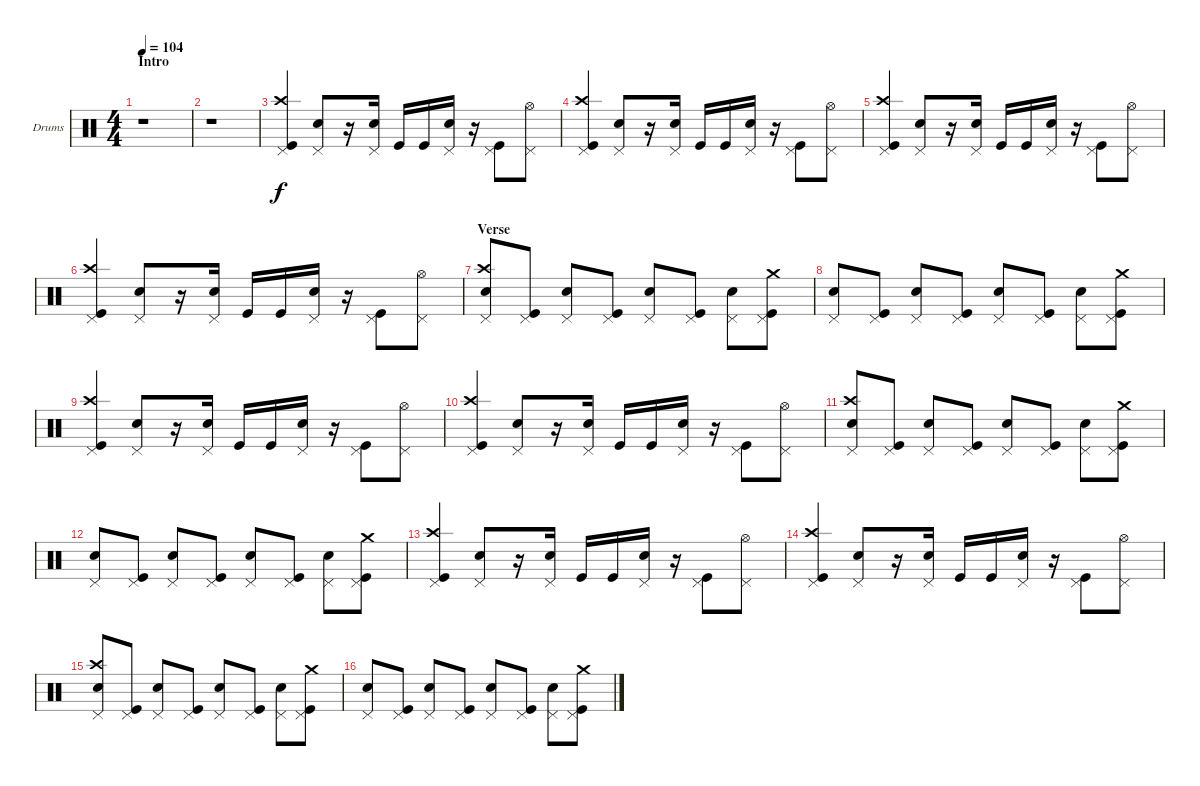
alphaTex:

\defaultSystemsLayout 4
\bracketExtendMode groupsimilarinstruments
\firstSystemTrackNameOrientation horizontal
\otherSystemsTrackNameOrientation horizontal
\track ("Drumkit" "Drums") {instrument percussion}
\staff {score}
\articulation defaults
\ts (4 4)
\section ("" "Intro")
\tempo 104
\clef neutral
\ks c
r.1{dy f} |
r.1 |
("Pedal Hi-Hat (hit)" "Crash high (hit)" "Kick (hit)").4 ("Pedal Hi-Hat (hit)" "Snare (hit) 2").8 r.16 ("Pedal Hi-Hat (hit)" "Snare (hit) 2").16 "Kick (hit)".16 "Kick (hit)".16 ("Pedal Hi-Hat (hit)" "Snare (hit) 2").16 r.16 ("Pedal Hi-Hat (hit)" "Kick (hit)").8 ("Pedal Hi-Hat (hit)" "Hi-Hat (open)").8 |
("Pedal Hi-Hat (hit)" "Crash high (hit)" "Kick (hit)").4 ("Pedal Hi-Hat (hit)" "Snare (hit) 2").8 r.16 ("Pedal Hi-Hat (hit)" "Snare (hit) 2").16 "Kick (hit)".16 "Kick (hit)".16 ("Pedal Hi-Hat (hit)" "Snare (hit) 2").16 r.16 ("Pedal Hi-Hat (hit)" "Kick (hit)").8 ("Pedal Hi-Hat (hit)" "Hi-Hat (open)").8 |
\scale
0.313253 ("Pedal Hi-Hat (hit)" "Crash high (hit)" "Kick (hit)").4 ("Pedal Hi-Hat (hit)" "Snare (hit) 2").8 r.16 ("Pedal Hi-Hat (hit)" "Snare (hit) 2").16 "Kick (hit)".16 "Kick (hit)".16 ("Pedal Hi-Hat (hit)" "Snare (hit) 2").16 r.16 ("Pedal Hi-Hat (hit)" "Kick (hit)").8 ("Pedal Hi-Hat (hit)" "Hi-Hat (open)").8 |
\scale
0.228916 ("Pedal Hi-Hat (hit)" "Crash high (hit)" "Kick (hit)").4 ("Pedal Hi-Hat (hit)" "Snare (hit) 2").8 r.16 ("Pedal Hi-Hat (hit)" "Snare (hit) 2").16 "Kick (hit)".16 "Kick (hit)".16 ("Pedal Hi-Hat (hit)" "Snare (hit) 2").16 r.16 ("Pedal Hi-Hat (hit)" "Kick (hit)").8 ("Pedal Hi-Hat (hit)" "Hi-Hat (open)").8 |
\section ("" "Verse")
\scale
0.228916 ("Pedal Hi-Hat (hit)" "Snare (hit) 2" "Crash high (hit)").8 ("Pedal Hi-Hat (hit)" "Kick (hit)").8 ("Pedal Hi-Hat (hit)" "Snare (hit) 2").8 ("Pedal Hi-Hat (hit)" "Kick (hit)").8 ("Pedal Hi-Hat (hit)" "Snare (hit) 2").8 ("Pedal Hi-Hat (hit)" "Kick (hit)").8 ("Pedal Hi-Hat (hit)" "Snare (hit) 2").8 ("Pedal Hi-Hat (hit)" "Kick (hit)" "Crash medium (hit)").8 |
\scale
0.228916 ("Pedal Hi-Hat (hit)" "Snare (hit) 2").8 ("Pedal Hi-Hat (hit)" "Kick (hit)").8 ("Pedal Hi-Hat (hit)" "Snare (hit) 2").8 ("Pedal Hi-Hat (hit)" "Kick (hit)").8 ("Pedal Hi-Hat (hit)" "Snare (hit) 2").8 ("Pedal Hi-Hat (hit)" "Kick (hit)").8 ("Pedal Hi-Hat (hit)" "Snare (hit) 2").8 ("Pedal Hi-Hat (hit)" "Kick (hit)" "Crash medium (hit)").8 |
("Pedal Hi-Hat (hit)" "Crash high (hit)" "Kick (hit)").4 ("Pedal Hi-Hat (hit)" "Snare (hit) 2").8 r.16 ("Pedal Hi-Hat (hit)" "Snare (hit) 2").16 "Kick (hit)".16 "Kick (hit)".16 ("Pedal Hi-Hat (hit)" "Snare (hit) 2").16 r.16 ("Pedal Hi-Hat (hit)" "Kick (hit)").8 ("Pedal Hi-Hat (hit)" "Hi-Hat (open)").8 |
("Pedal Hi-Hat (hit)" "Crash high (hit)" "Kick (hit)").4 ("Pedal Hi-Hat (hit)" "Snare (hit) 2").8 r.16 ("Pedal Hi-Hat (hit)" "Snare (hit) 2").16 "Kick (hit)".16 "Kick (hit)".16 ("Pedal Hi-Hat (hit)" "Snare (hit) 2").16 r.16 ("Pedal Hi-Hat (hit)" "Kick (hit)").8 ("Pedal Hi-Hat (hit)" "Hi-Hat (open)").8 |
("Pedal Hi-Hat (hit)" "Snare (hit) 2" "Crash high (hit)").8 ("Pedal Hi-Hat (hit)" "Kick (hit)").8 ("Pedal Hi-Hat (hit)" "Snare (hit) 2").8 ("Pedal Hi-Hat (hit)" "Kick (hit)").8 ("Pedal Hi-Hat (hit)" "Snare (hit) 2").8 ("Pedal Hi-Hat (hit)" "Kick (hit)").8 ("Pedal Hi-Hat (hit)" "Snare (hit) 2").8 ("Pedal Hi-Hat (hit)" "Kick (hit)" "Crash medium (hit)").8 |
("Pedal Hi-Hat (hit)" "Snare (hit) 2").8 ("Pedal Hi-Hat (hit)" "Kick (hit)").8 ("Pedal Hi-Hat (hit)" "Snare (hit) 2").8 ("Pedal Hi-Hat (hit)" "Kick (hit)").8 ("Pedal Hi-Hat (hit)" "Snare (hit) 2").8 ("Pedal Hi-Hat (hit)" "Kick (hit)").8 ("Pedal Hi-Hat (hit)" "Snare (hit) 2").8 ("Pedal Hi-Hat (hit)" "Kick (hit)" "Crash medium (hit)").8 |
("Pedal Hi-Hat (hit)" "Crash high (hit)" "Kick (hit)").4 ("Pedal Hi-Hat (hit)" "Snare (hit) 2").8 r.16 ("Pedal Hi-Hat (hit)" "Snare (hit) 2").16 "Kick (hit)".16 "Kick (hit)".16 ("Pedal Hi-Hat (hit)" "Snare (hit) 2").16 r.16 ("Pedal Hi-Hat (hit)" "Kick (hit)").8 ("Pedal Hi-Hat (hit)" "Hi-Hat (open)").8 |
("Pedal Hi-Hat (hit)" "Crash high (hit)" "Kick (hit)").4 ("Pedal Hi-Hat (hit)" "Snare (hit) 2").8 r.16 ("Pedal Hi-Hat (hit)" "Snare (hit) 2").16 "Kick (hit)".16 "Kick (hit)".16 ("Pedal Hi-Hat (hit)" "Snare (hit) 2").16 r.16 ("Pedal Hi-Hat (hit)" "Kick (hit)").8 ("Pedal Hi-Hat (hit)" "Hi-Hat (open)").8 |
("Pedal Hi-Hat (hit)" "Snare (hit) 2" "Crash high (hit)").8 ("Pedal Hi-Hat (hit)" "Kick (hit)").8 ("Pedal Hi-Hat (hit)" "Snare (hit) 2").8 ("Pedal Hi-Hat (hit)" "Kick (hit)").8 ("Pedal Hi-Hat (hit)" "Snare (hit) 2").8 ("Pedal Hi-Hat (hit)" "Kick (hit)").8 ("Pedal Hi-Hat (hit)" "Snare (hit) 2").8 ("Pedal Hi-Hat (hit)" "Kick (hit)" "Crash medium (hit)").8 |
("Pedal Hi-Hat (hit)" "Snare (hit) 2").8 ("Pedal Hi-Hat (hit)" "Kick (hit)").8 ("Pedal Hi-Hat (hit)" "Snare (hit) 2").8 ("Pedal Hi-Hat (hit)" "Kick (hit)").8 ("Pedal Hi-Hat (hit)" "Snare (hit) 2").8 ("Pedal Hi-Hat (hit)" "Kick (hit)").8 ("Pedal Hi-Hat (hit)" "Snare (hit) 2").8 ("Pedal Hi-Hat (hit)" "Kick (hit)" "Crash medium (hit)").8
